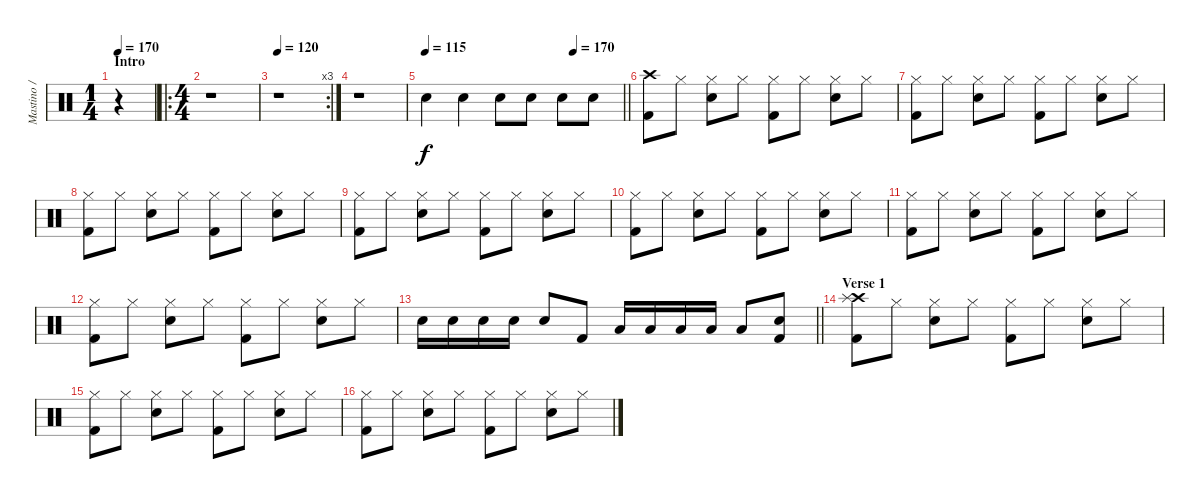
\track ("Mastino / Drums" "Mastino / ") {instrument percussion}
\staff {score}
\articulation defaults
\ts (1 4)
\section ("" "Intro")
\tempo 170
\tempo 120
\tempo 170
\clef neutral
\ks c
r.4{dy f} |
\ro
\ts (4 4)
r.1 |
\rc 3
\tempo 120
r.1 |
r.1 |
\tempo 115
\tempo (170 0.75)
\barLineRight lightlight "Electric Snare (hit)".4 "Electric Snare (hit)".4 "Electric Snare (hit)".8 "Electric Snare (hit)".8 "Electric Snare (hit)".8 "Electric Snare (hit)".8
|
("Crash high (hit)" "Kick (hit) 2").8 "Hi-Hat (closed)".8 ("Hi-Hat (closed)" "Electric Snare (hit)").8 "Hi-Hat (closed)".8 ("Hi-Hat (closed)" "Kick (hit) 2").8 "Hi-Hat (closed)".8 ("Hi-Hat (closed)" "Electric Snare (hit)").8 "Hi-Hat (closed)".8 |
("Hi-Hat (closed)" "Kick (hit) 2").8 "Hi-Hat (closed)".8 ("Hi-Hat (closed)" "Electric Snare (hit)").8 "Hi-Hat (closed)".8 ("Hi-Hat (closed)" "Kick (hit) 2").8 "Hi-Hat (closed)".8 ("Hi-Hat (closed)" "Electric Snare (hit)").8 "Hi-Hat (closed)".8 |
("Hi-Hat (closed)" "Kick (hit) 2").8 "Hi-Hat (closed)".8 ("Hi-Hat (closed)" "Electric Snare (hit)").8 "Hi-Hat (closed)".8 ("Hi-Hat (closed)" "Kick (hit) 2").8 "Hi-Hat (closed)".8 ("Hi-Hat (closed)" "Electric Snare (hit)").8 "Hi-Hat (closed)".8 |
("Hi-Hat (closed)" "Kick (hit) 2").8 "Hi-Hat (closed)".8 ("Hi-Hat (closed)" "Electric Snare (hit)").8 "Hi-Hat (closed)".8 ("Hi-Hat (closed)" "Kick (hit) 2").8 "Hi-Hat (closed)".8 ("Hi-Hat (closed)" "Electric Snare (hit)").8 "Hi-Hat (closed)".8 |
("Hi-Hat (closed)" "Kick (hit) 2").8 "Hi-Hat (closed)".8 ("Hi-Hat (closed)" "Electric Snare (hit)").8 "Hi-Hat (closed)".8 ("Hi-Hat (closed)" "Kick (hit) 2").8 "Hi-Hat (closed)".8 ("Hi-Hat (closed)" "Electric Snare (hit)").8 "Hi-Hat (closed)".8 |
("Hi-Hat (closed)" "Kick (hit) 2").8 "Hi-Hat (closed)".8 ("Hi-Hat (closed)" "Electric Snare (hit)").8 "Hi-Hat (closed)".8 ("Hi-Hat (closed)" "Kick (hit) 2").8 "Hi-Hat (closed)".8 ("Hi-Hat (closed)" "Electric Snare (hit)").8 "Hi-Hat (closed)".8 |
("Hi-Hat (closed)" "Kick (hit) 2").8 "Hi-Hat (closed)".8 ("Hi-Hat (closed)" "Electric Snare (hit)").8 "Hi-Hat (closed)".8 ("Hi-Hat (closed)" "Kick (hit) 2").8 "Hi-Hat (closed)".8 ("Hi-Hat (closed)" "Electric Snare (hit)").8 "Hi-Hat (closed)".8 |
\barLineRight lightlight "Electric Snare (hit)".16 "Electric Snare (hit)".16 "Electric Snare (hit)".16 "Electric Snare (hit)".16 "Electric Snare (hit)".8 "Kick (hit) 2".8 "Low Tom (hit)".16 "Low Tom (hit)".16 "Low Tom (hit)".16 "Low Tom (hit)".16 "Low Tom (hit)".8
("Electric Snare (hit)" "Kick (hit) 2").8 |
\section ("" "Verse 1")
("Crash high (hit)" "Splash (hit)" "Kick (hit) 2").8 "Hi-Hat (closed)".8 ("Hi-Hat (closed)" "Electric Snare (hit)").8 "Hi-Hat (closed)".8 ("Hi-Hat (closed)" "Kick (hit) 2").8 "Hi-Hat (closed)".8 ("Hi-Hat (closed)" "Electric Snare (hit)").8 "Hi-Hat (closed)".8 |
("Hi-Hat (closed)" "Kick (hit) 2").8 "Hi-Hat (closed)".8 ("Hi-Hat (closed)" "Electric Snare (hit)").8 "Hi-Hat (closed)".8 ("Hi-Hat (closed)" "Kick (hit) 2").8 "Hi-Hat (closed)".8 ("Hi-Hat (closed)" "Electric Snare (hit)").8 "Hi-Hat (closed)".8 |
("Hi-Hat (closed)" "Kick (hit) 2").8 "Hi-Hat (closed)".8 ("Hi-Hat (closed)" "Electric Snare (hit)").8 "Hi-Hat (closed)".8 ("Hi-Hat (closed)" "Kick (hit) 2").8 "Hi-Hat (closed)".8 ("Hi-Hat (closed)" "Electric Snare (hit)").8 "Hi-Hat (closed)".8
